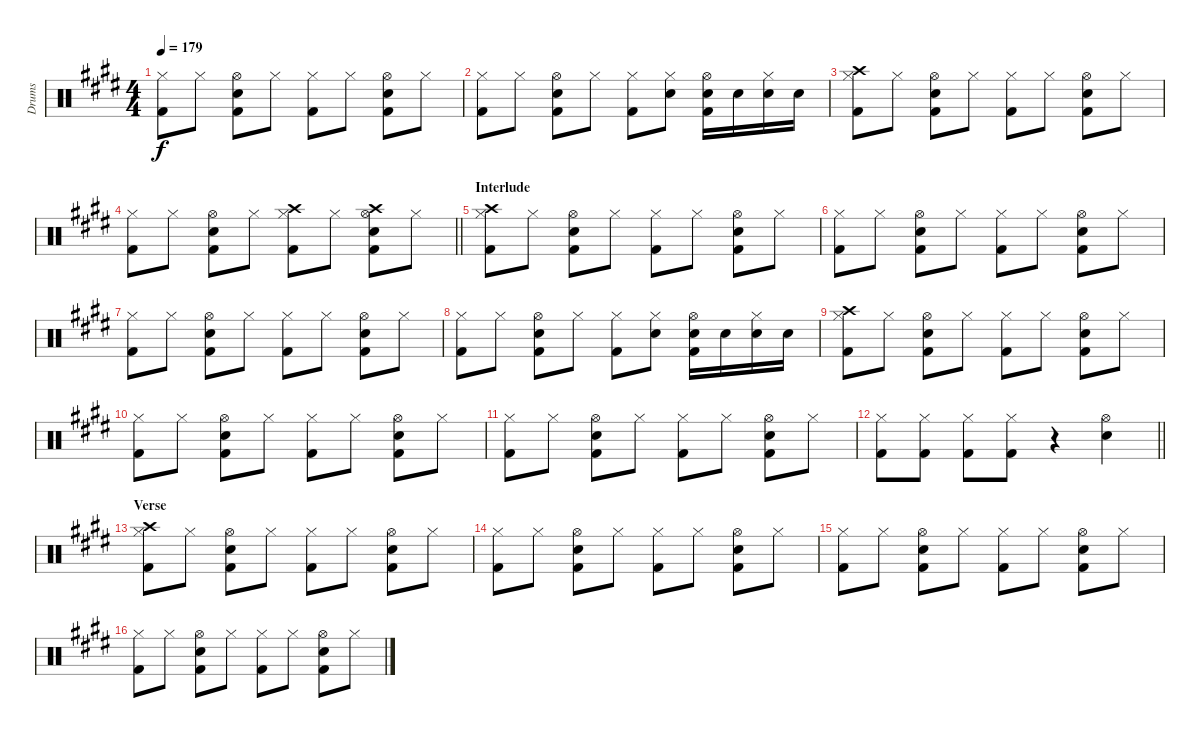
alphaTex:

\track ("Drums" "Drums") {instrument percussion}
\staff {score}
\articulation defaults
\ts (4 4)
\tempo 179
\clef neutral
\ks e
("Hi-Hat (closed)" "Kick (hit) 2").8{dy f} "Hi-Hat (closed)".8 ("Hi-Hat (open)" "Snare (hit) 2" "Kick (hit) 2").8 "Hi-Hat (closed)".8 ("Hi-Hat (closed)" "Kick (hit) 2").8 "Hi-Hat (closed)".8 ("Hi-Hat (open)" "Snare (hit) 2" "Kick (hit) 2").8 "Hi-Hat (closed)".8 |
("Hi-Hat (closed)" "Kick (hit) 2").8 "Hi-Hat (closed)".8 ("Hi-Hat (open)" "Snare (hit) 2" "Kick (hit) 2").8 "Hi-Hat (closed)".8 ("Hi-Hat (closed)" "Kick (hit) 2").8 ("Hi-Hat (closed)" "Snare (hit) 2").8 ("Hi-Hat (open)" "Snare (hit) 2" "Kick (hit) 2").16 "Snare (hit) 2".16 ("Hi-Hat (closed)" "Snare (hit) 2").16 "Snare (hit) 2".16 |
("Hi-Hat (closed)" "Crash high (hit)" "Kick (hit) 2").8 "Hi-Hat (closed)".8 ("Hi-Hat (open)" "Snare (hit) 2" "Kick (hit) 2").8 "Hi-Hat (closed)".8 ("Hi-Hat (closed)" "Kick (hit) 2").8 "Hi-Hat (closed)".8 ("Hi-Hat (open)" "Snare (hit) 2" "Kick (hit) 2").8 "Hi-Hat (closed)".8 |
\barLineRight lightlight
("Hi-Hat (closed)" "Kick (hit) 2").8 "Hi-Hat (closed)".8 ("Hi-Hat (open)" "Snare (hit) 2" "Kick (hit) 2").8 "Hi-Hat (closed)".8 ("Hi-Hat (closed)" "Crash high (hit)" "Kick (hit) 2").8 "Hi-Hat (closed)".8 ("Hi-Hat (open)" "Snare (hit) 2" "Crash high (hit)" "Kick (hit) 2").8 "Hi-Hat (closed)".8 |
\section ("" "Interlude")
("Hi-Hat (closed)" "Crash high (hit)" "Kick (hit) 2").8 "Hi-Hat (closed)".8 ("Hi-Hat (open)" "Snare (hit) 2" "Kick (hit) 2").8 "Hi-Hat (closed)".8 ("Hi-Hat (closed)" "Kick (hit) 2").8 "Hi-Hat (closed)".8 ("Hi-Hat (open)" "Snare (hit) 2" "Kick (hit) 2").8 "Hi-Hat (closed)".8 |
("Hi-Hat (closed)" "Kick (hit) 2").8 "Hi-Hat (closed)".8 ("Hi-Hat (open)" "Snare (hit) 2" "Kick (hit) 2").8 "Hi-Hat (closed)".8 ("Hi-Hat (closed)" "Kick (hit) 2").8 "Hi-Hat (closed)".8 ("Hi-Hat (open)" "Snare (hit) 2" "Kick (hit) 2").8 "Hi-Hat (closed)".8 |
("Hi-Hat (closed)" "Kick (hit) 2").8 "Hi-Hat (closed)".8 ("Hi-Hat (open)" "Snare (hit) 2" "Kick (hit) 2").8 "Hi-Hat (closed)".8 ("Hi-Hat (closed)" "Kick (hit) 2").8 "Hi-Hat (closed)".8 ("Hi-Hat (open)" "Snare (hit) 2" "Kick (hit) 2").8 "Hi-Hat (closed)".8 |
("Hi-Hat (closed)" "Kick (hit) 2").8 "Hi-Hat (closed)".8 ("Hi-Hat (open)" "Snare (hit) 2" "Kick (hit) 2").8 "Hi-Hat (closed)".8 ("Hi-Hat (closed)" "Kick (hit) 2").8 ("Hi-Hat (closed)" "Snare (hit) 2").8 ("Hi-Hat (open)" "Snare (hit) 2" "Kick (hit) 2").16 "Snare (hit) 2".16 ("Hi-Hat (closed)" "Snare (hit) 2").16 "Snare (hit) 2".16 |
("Hi-Hat (closed)" "Crash high (hit)" "Kick (hit) 2").8 "Hi-Hat (closed)".8 ("Hi-Hat (open)" "Snare (hit) 2" "Kick (hit) 2").8 "Hi-Hat (closed)".8 ("Hi-Hat (closed)" "Kick (hit) 2").8 "Hi-Hat (closed)".8 ("Hi-Hat (open)" "Snare (hit) 2" "Kick (hit) 2").8 "Hi-Hat (closed)".8 |
("Hi-Hat (closed)" "Kick (hit) 2").8 "Hi-Hat (closed)".8 ("Hi-Hat (open)" "Snare (hit) 2" "Kick (hit) 2").8 "Hi-Hat (closed)".8 ("Hi-Hat (closed)" "Kick (hit) 2").8 "Hi-Hat (closed)".8 ("Hi-Hat (open)" "Snare (hit) 2" "Kick (hit) 2").8 "Hi-Hat (closed)".8 |
("Hi-Hat (closed)" "Kick (hit) 2").8 "Hi-Hat (closed)".8 ("Hi-Hat (open)" "Snare (hit) 2" "Kick (hit) 2").8 "Hi-Hat (closed)".8 ("Hi-Hat (closed)" "Kick (hit) 2").8 "Hi-Hat (closed)".8 ("Hi-Hat (open)" "Snare (hit) 2" "Kick (hit) 2").8 "Hi-Hat (closed)".8 |
\barLineRight lightlight
("Hi-Hat (closed)" "Kick (hit) 2").8 ("Hi-Hat (closed)" "Kick (hit) 2").8 ("Hi-Hat (closed)" "Kick (hit) 2").8 ("Hi-Hat (closed)" "Kick (hit) 2").8 r.4 ("Hi-Hat (open)" "Snare (hit) 2").4 |
\section ("" "Verse")
("Hi-Hat (closed)" "Crash high (hit)" "Kick (hit) 2").8 "Hi-Hat (closed)".8 ("Hi-Hat (open)" "Snare (hit) 2" "Kick (hit) 2").8 "Hi-Hat (closed)".8 ("Hi-Hat (closed)" "Kick (hit) 2").8 "Hi-Hat (closed)".8 ("Hi-Hat (open)" "Snare (hit) 2" "Kick (hit) 2").8 "Hi-Hat (closed)".8 |
("Hi-Hat (closed)" "Kick (hit) 2").8 "Hi-Hat (closed)".8 ("Hi-Hat (open)" "Snare (hit) 2" "Kick (hit) 2").8 "Hi-Hat (closed)".8 ("Hi-Hat (closed)" "Kick (hit) 2").8 "Hi-Hat (closed)".8 ("Hi-Hat (open)" "Snare (hit) 2" "Kick (hit) 2").8 "Hi-Hat (closed)".8 |
("Hi-Hat (closed)" "Kick (hit) 2").8 "Hi-Hat (closed)".8 ("Hi-Hat (open)" "Snare (hit) 2" "Kick (hit) 2").8 "Hi-Hat (closed)".8 ("Hi-Hat (closed)" "Kick (hit) 2").8 "Hi-Hat (closed)".8 ("Hi-Hat (open)" "Snare (hit) 2" "Kick (hit) 2").8 "Hi-Hat (closed)".8 |
("Hi-Hat (closed)" "Kick (hit) 2").8 "Hi-Hat (closed)".8 ("Hi-Hat (open)" "Snare (hit) 2" "Kick (hit) 2").8 "Hi-Hat (closed)".8 ("Hi-Hat (closed)" "Kick (hit) 2").8 "Hi-Hat (closed)".8 ("Hi-Hat (open)" "Snare (hit) 2" "Kick (hit) 2").8 "Hi-Hat (closed)".8
